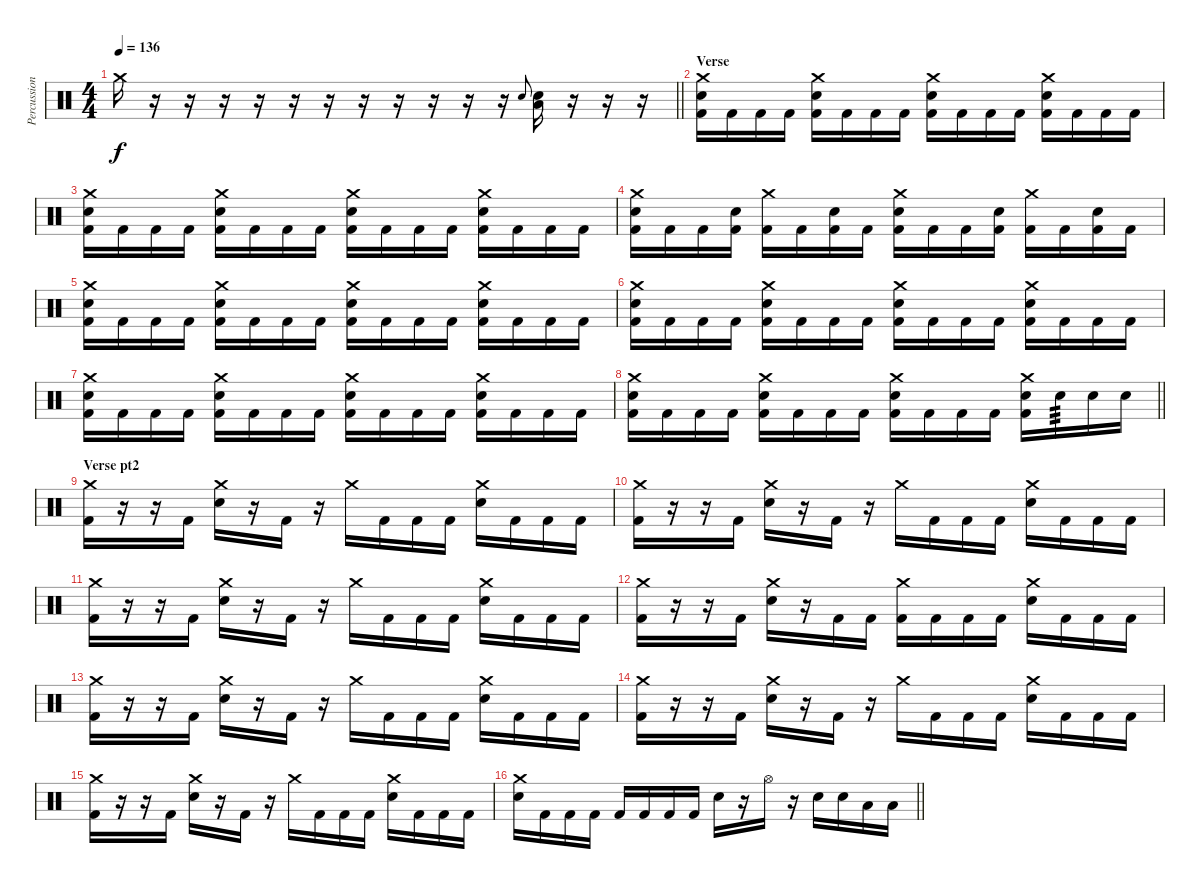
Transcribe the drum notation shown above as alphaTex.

\track ("Percussion" "Percussion") {instrument percussion}
\staff {score}
\articulation defaults
\ts (4 4)
\tempo 136
\clef neutral
\barLineRight lightlight
\ks c "Crash medium (hit)".16{dy f}
r.16 r.16 r.16 r.16 r.16 r.16 r.16 r.16 r.16 r.16 r.16 "Electric Snare (hit)".8{gr onbeat} ("Electric Snare (hit)" "Low Floor Tom (hit)").16 r.16 r.16 r.16 |
\section ("" "Verse")
("Crash medium (hit)" "Electric Snare (hit)" "Kick (hit) 2").16 "Kick (hit) 2".16 "Kick (hit) 2".16 "Kick (hit) 2".16 ("Crash medium (hit)" "Electric Snare (hit)" "Kick (hit) 2").16 "Kick (hit) 2".16 "Kick (hit) 2".16 "Kick (hit) 2".16 ("Crash medium (hit)" "Electric Snare (hit)" "Kick (hit) 2").16 "Kick (hit) 2".16 "Kick (hit) 2".16 "Kick (hit) 2".16 ("Crash medium (hit)" "Electric Snare (hit)" "Kick (hit) 2").16 "Kick (hit) 2".16 "Kick (hit) 2".16 "Kick (hit) 2".16 |
("Crash medium (hit)" "Electric Snare (hit)" "Kick (hit) 2").16 "Kick (hit) 2".16 "Kick (hit) 2".16 "Kick (hit) 2".16 ("Crash medium (hit)" "Electric Snare (hit)" "Kick (hit) 2").16 "Kick (hit) 2".16 "Kick (hit) 2".16 "Kick (hit) 2".16 ("Crash medium (hit)" "Electric Snare (hit)" "Kick (hit) 2").16 "Kick (hit) 2".16 "Kick (hit) 2".16 "Kick (hit) 2".16 ("Crash medium (hit)" "Electric Snare (hit)" "Kick (hit) 2").16 "Kick (hit) 2".16 "Kick (hit) 2".16 "Kick (hit) 2".16 |
("Crash medium (hit)" "Electric Snare (hit)" "Kick (hit) 2").16 "Kick (hit) 2".16 "Kick (hit) 2".16 ("Electric Snare (hit)" "Kick (hit) 2").16 ("Crash medium (hit)" "Kick (hit) 2").16 "Kick (hit) 2".16 ("Electric Snare (hit)" "Kick (hit) 2").16 "Kick (hit) 2".16 ("Crash medium (hit)" "Electric Snare (hit)" "Kick (hit) 2").16 "Kick (hit) 2".16 "Kick (hit) 2".16 ("Electric Snare (hit)" "Kick (hit) 2").16 ("Crash medium (hit)" "Kick (hit) 2").16 "Kick (hit) 2".16 ("Electric Snare (hit)" "Kick (hit) 2").16 "Kick (hit) 2".16 |
("Crash medium (hit)" "Electric Snare (hit)" "Kick (hit) 2").16 "Kick (hit) 2".16 "Kick (hit) 2".16 "Kick (hit) 2".16 ("Crash medium (hit)" "Electric Snare (hit)" "Kick (hit) 2").16 "Kick (hit) 2".16 "Kick (hit) 2".16 "Kick (hit) 2".16 ("Crash medium (hit)" "Electric Snare (hit)" "Kick (hit) 2").16 "Kick (hit) 2".16 "Kick (hit) 2".16 "Kick (hit) 2".16 ("Crash medium (hit)" "Electric Snare (hit)" "Kick (hit) 2").16 "Kick (hit) 2".16 "Kick (hit) 2".16 "Kick (hit) 2".16 |
("Crash medium (hit)" "Electric Snare (hit)" "Kick (hit) 2").16 "Kick (hit) 2".16 "Kick (hit) 2".16 "Kick (hit) 2".16 ("Crash medium (hit)" "Electric Snare (hit)" "Kick (hit) 2").16 "Kick (hit) 2".16 "Kick (hit) 2".16 "Kick (hit) 2".16 ("Crash medium (hit)" "Electric Snare (hit)" "Kick (hit) 2").16 "Kick (hit) 2".16 "Kick (hit) 2".16 "Kick (hit) 2".16 ("Crash medium (hit)" "Electric Snare (hit)" "Kick (hit) 2").16 "Kick (hit) 2".16 "Kick (hit) 2".16 "Kick (hit) 2".16 |
("Crash medium (hit)" "Electric Snare (hit)" "Kick (hit) 2").16 "Kick (hit) 2".16 "Kick (hit) 2".16 "Kick (hit) 2".16 ("Crash medium (hit)" "Electric Snare (hit)" "Kick (hit) 2").16 "Kick (hit) 2".16 "Kick (hit) 2".16 "Kick (hit) 2".16 ("Crash medium (hit)" "Electric Snare (hit)" "Kick (hit) 2").16 "Kick (hit) 2".16 "Kick (hit) 2".16 "Kick (hit) 2".16 ("Crash medium (hit)" "Electric Snare (hit)" "Kick (hit) 2").16 "Kick (hit) 2".16 "Kick (hit) 2".16 "Kick (hit) 2".16 |
\barLineRight lightlight
("Crash medium (hit)" "Electric Snare (hit)" "Kick (hit) 2").16 "Kick (hit) 2".16 "Kick (hit) 2".16 "Kick (hit) 2".16 ("Crash medium (hit)" "Electric Snare (hit)" "Kick (hit) 2").16 "Kick (hit) 2".16 "Kick (hit) 2".16 "Kick (hit) 2".16 ("Crash medium (hit)" "Electric Snare (hit)" "Kick (hit) 2").16 "Kick (hit) 2".16 "Kick (hit) 2".16 "Kick (hit) 2".16 ("Crash medium (hit)" "Electric Snare (hit)" "Kick (hit) 2").16 "Electric Snare (hit)".16{tp 3} "Electric Snare (hit)".16 "Electric Snare (hit)".16 |
\section ("" "Verse pt2")
("Crash medium (hit)" "Kick (hit) 2").16 r.16 r.16 "Kick (hit) 2".16 ("Crash medium (hit)" "Electric Snare (hit)").16 r.16 "Kick (hit) 2".16 r.16 "Crash medium (hit)".16 "Kick (hit) 2".16 "Kick (hit) 2".16 "Kick (hit) 2".16 ("Crash medium (hit)" "Electric Snare (hit)").16 "Kick (hit) 2".16 "Kick (hit) 2".16 "Kick (hit) 2".16 |
("Crash medium (hit)" "Kick (hit) 2").16 r.16 r.16 "Kick (hit) 2".16 ("Crash medium (hit)" "Electric Snare (hit)").16 r.16 "Kick (hit) 2".16 r.16 "Crash medium (hit)".16 "Kick (hit) 2".16 "Kick (hit) 2".16 "Kick (hit) 2".16 ("Crash medium (hit)" "Electric Snare (hit)").16 "Kick (hit) 2".16 "Kick (hit) 2".16 "Kick (hit) 2".16 |
("Crash medium (hit)" "Kick (hit) 2").16 r.16 r.16 "Kick (hit) 2".16 ("Crash medium (hit)" "Electric Snare (hit)").16 r.16 "Kick (hit) 2".16 r.16 "Crash medium (hit)".16 "Kick (hit) 2".16 "Kick (hit) 2".16 "Kick (hit) 2".16 ("Crash medium (hit)" "Electric Snare (hit)").16 "Kick (hit) 2".16 "Kick (hit) 2".16 "Kick (hit) 2".16 |
("Crash medium (hit)" "Kick (hit) 2").16 r.16 r.16 "Kick (hit) 2".16 ("Crash medium (hit)" "Electric Snare (hit)").16 r.16 "Kick (hit) 2".16 "Kick (hit) 2".16 ("Crash medium (hit)" "Kick (hit) 2").16 "Kick (hit) 2".16 "Kick (hit) 2".16 "Kick (hit) 2".16 ("Crash medium (hit)" "Electric Snare (hit)").16 "Kick (hit) 2".16 "Kick (hit) 2".16 "Kick (hit) 2".16 |
("Crash medium (hit)" "Kick (hit) 2").16 r.16 r.16 "Kick (hit) 2".16 ("Crash medium (hit)" "Electric Snare (hit)").16 r.16 "Kick (hit) 2".16 r.16 "Crash medium (hit)".16 "Kick (hit) 2".16 "Kick (hit) 2".16 "Kick (hit) 2".16 ("Crash medium (hit)" "Electric Snare (hit)").16 "Kick (hit) 2".16 "Kick (hit) 2".16 "Kick (hit) 2".16 |
("Crash medium (hit)" "Kick (hit) 2").16 r.16 r.16 "Kick (hit) 2".16 ("Crash medium (hit)" "Electric Snare (hit)").16 r.16 "Kick (hit) 2".16 r.16 "Crash medium (hit)".16 "Kick (hit) 2".16 "Kick (hit) 2".16 "Kick (hit) 2".16 ("Crash medium (hit)" "Electric Snare (hit)").16 "Kick (hit) 2".16 "Kick (hit) 2".16 "Kick (hit) 2".16 |
("Crash medium (hit)" "Kick (hit) 2").16 r.16 r.16 "Kick (hit) 2".16 ("Crash medium (hit)" "Electric Snare (hit)").16 r.16 "Kick (hit) 2".16 r.16 "Crash medium (hit)".16 "Kick (hit) 2".16 "Kick (hit) 2".16 "Kick (hit) 2".16 ("Crash medium (hit)" "Electric Snare (hit)").16 "Kick (hit) 2".16 "Kick (hit) 2".16 "Kick (hit) 2".16 |
\barLineRight lightlight
("Crash medium (hit)" "Electric Snare (hit)").16 "Kick (hit) 2".16 "Kick (hit) 2".16 "Kick (hit) 2".16 "Kick (hit) 2".16 "Kick (hit) 2".16 "Kick (hit) 2".16 "Kick (hit) 2".16 "Electric Snare (hit)".16 r.16 "Hi-Hat (open)".16 r.16 "Electric Snare (hit)".16 "Electric Snare (hit)".16 "Low Floor Tom (hit)".16 "Low Floor Tom (hit)".16
